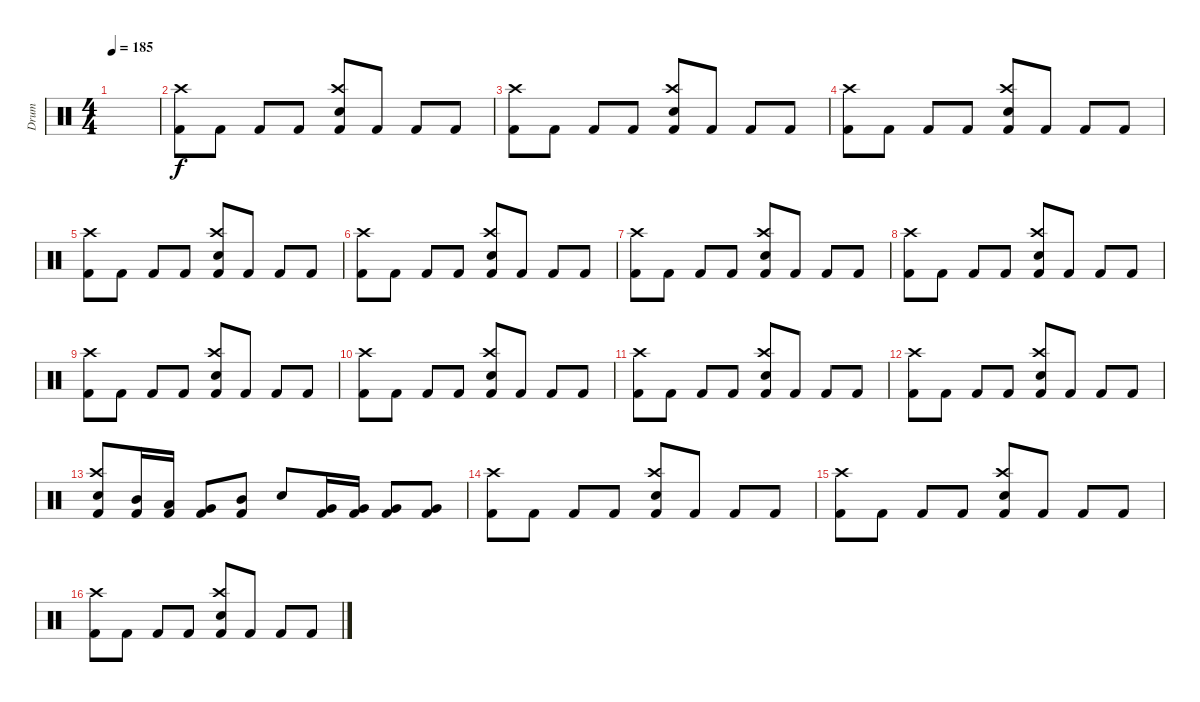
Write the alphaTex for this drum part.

\track ("Drum" "Drum") {instrument percussion}
\staff {score}
\articulation defaults
\ts (4 4)
\tempo 185
\clef neutral
\ks c
|
("Kick (hit) 2" "Crash high (hit)").8 "Kick (hit) 2".8 "Kick (hit) 2".8 "Kick (hit) 2".8 ("Kick (hit) 2" "Crash high (hit)" "Electric Snare (hit)").8 "Kick (hit) 2".8 "Kick (hit) 2".8 "Kick (hit) 2".8 |
("Kick (hit) 2" "Crash high (hit)").8 "Kick (hit) 2".8 "Kick (hit) 2".8 "Kick (hit) 2".8 ("Kick (hit) 2" "Crash high (hit)" "Electric Snare (hit)").8 "Kick (hit) 2".8 "Kick (hit) 2".8 "Kick (hit) 2".8 |
("Kick (hit) 2" "Crash high (hit)").8 "Kick (hit) 2".8 "Kick (hit) 2".8 "Kick (hit) 2".8 ("Kick (hit) 2" "Crash high (hit)" "Electric Snare (hit)").8 "Kick (hit) 2".8 "Kick (hit) 2".8 "Kick (hit) 2".8 |
("Kick (hit) 2" "Crash high (hit)").8 "Kick (hit) 2".8 "Kick (hit) 2".8 "Kick (hit) 2".8 ("Kick (hit) 2" "Crash high (hit)" "Electric Snare (hit)").8 "Kick (hit) 2".8 "Kick (hit) 2".8 "Kick (hit) 2".8 |
("Kick (hit) 2" "Crash high (hit)").8 "Kick (hit) 2".8 "Kick (hit) 2".8 "Kick (hit) 2".8 ("Kick (hit) 2" "Crash high (hit)" "Electric Snare (hit)").8 "Kick (hit) 2".8 "Kick (hit) 2".8 "Kick (hit) 2".8 |
("Kick (hit) 2" "Crash high (hit)").8 "Kick (hit) 2".8 "Kick (hit) 2".8 "Kick (hit) 2".8 ("Kick (hit) 2" "Crash high (hit)" "Electric Snare (hit)").8 "Kick (hit) 2".8 "Kick (hit) 2".8 "Kick (hit) 2".8 |
("Kick (hit) 2" "Crash high (hit)").8 "Kick (hit) 2".8 "Kick (hit) 2".8 "Kick (hit) 2".8 ("Kick (hit) 2" "Crash high (hit)" "Electric Snare (hit)").8 "Kick (hit) 2".8 "Kick (hit) 2".8 "Kick (hit) 2".8 |
("Kick (hit) 2" "Crash high (hit)").8 "Kick (hit) 2".8 "Kick (hit) 2".8 "Kick (hit) 2".8 ("Kick (hit) 2" "Crash high (hit)" "Electric Snare (hit)").8 "Kick (hit) 2".8 "Kick (hit) 2".8 "Kick (hit) 2".8 |
("Kick (hit) 2" "Crash high (hit)").8 "Kick (hit) 2".8 "Kick (hit) 2".8 "Kick (hit) 2".8 ("Kick (hit) 2" "Crash high (hit)" "Electric Snare (hit)").8 "Kick (hit) 2".8 "Kick (hit) 2".8 "Kick (hit) 2".8 |
("Kick (hit) 2" "Crash high (hit)").8 "Kick (hit) 2".8 "Kick (hit) 2".8 "Kick (hit) 2".8 ("Kick (hit) 2" "Crash high (hit)" "Electric Snare (hit)").8 "Kick (hit) 2".8 "Kick (hit) 2".8 "Kick (hit) 2".8 |
("Kick (hit) 2" "Crash high (hit)").8 "Kick (hit) 2".8 "Kick (hit) 2".8 "Kick (hit) 2".8 ("Kick (hit) 2" "Crash high (hit)" "Electric Snare (hit)").8 "Kick (hit) 2".8 "Kick (hit) 2".8 "Kick (hit) 2".8 |
("Electric Snare (hit)" "Crash high (hit)" "Kick (hit) 2").8 ("Mid Tom (hit)" "Kick (hit) 2").16 ("Low Tom (hit)" "Kick (hit) 2").16 ("Very Low Tom (hit)" "Kick (hit) 2").8 ("Mid Tom (hit)" "Kick (hit) 2").8 "Electric Snare (hit)".8 ("Very Low Tom (hit)" "Kick (hit) 2").16 ("Very Low Tom (hit)" "Kick (hit) 2").16 ("Very Low Tom (hit)" "Kick (hit) 2").8 ("Very Low Tom (hit)" "Kick (hit) 2").8 |
("Kick (hit) 2" "Crash high (hit)").8 "Kick (hit) 2".8 "Kick (hit) 2".8 "Kick (hit) 2".8 ("Kick (hit) 2" "Crash high (hit)" "Electric Snare (hit)").8 "Kick (hit) 2".8 "Kick (hit) 2".8 "Kick (hit) 2".8 |
("Kick (hit) 2" "Crash high (hit)").8 "Kick (hit) 2".8 "Kick (hit) 2".8 "Kick (hit) 2".8 ("Kick (hit) 2" "Crash high (hit)" "Electric Snare (hit)").8 "Kick (hit) 2".8 "Kick (hit) 2".8 "Kick (hit) 2".8 |
("Kick (hit) 2" "Crash high (hit)").8 "Kick (hit) 2".8 "Kick (hit) 2".8 "Kick (hit) 2".8 ("Kick (hit) 2" "Crash high (hit)" "Electric Snare (hit)").8 "Kick (hit) 2".8 "Kick (hit) 2".8 "Kick (hit) 2".8
